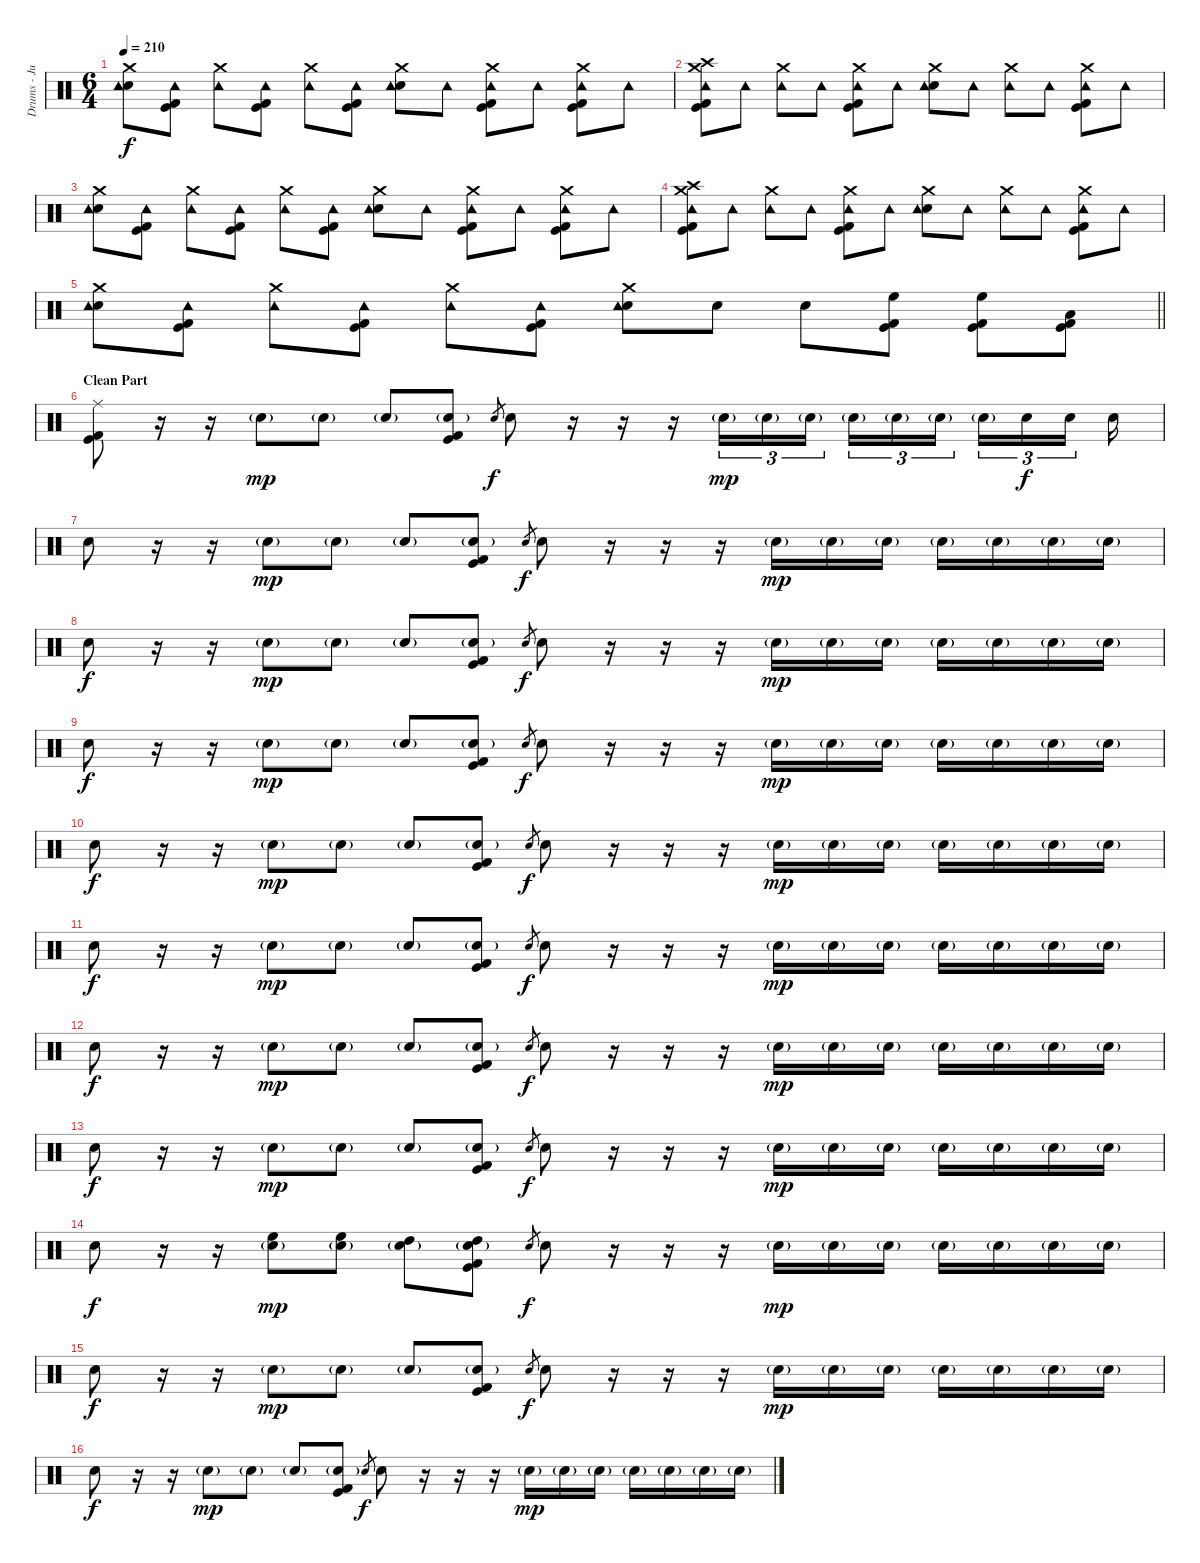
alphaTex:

\track ("Drums - Justin Foley" "Drums - Ju") {instrument percussion}
\staff {score}
\articulation defaults
\ts (6 4)
\tempo 210
\clef neutral
\ks c
("Crash medium (hit)" "Snare (hit) 2" "Tambourine (hit)").8{dy f} ("Kick (hit) 2" "Kick (hit)" "Tambourine (hit)").8 ("Crash medium (hit)" "Tambourine (hit)").8 ("Kick (hit) 2" "Kick (hit)" "Tambourine (hit)").8 ("Crash medium (hit)" "Tambourine (hit)").8 ("Kick (hit) 2" "Kick (hit)" "Tambourine (hit)").8 ("Crash medium (hit)" "Snare (hit) 2" "Tambourine (hit)").8 "Tambourine (hit)".8 ("Crash medium (hit)" "Kick (hit) 2" "Kick (hit)" "Tambourine (hit)").8 "Tambourine (hit)".8 ("Crash medium (hit)" "Kick (hit) 2" "Kick (hit)" "Tambourine (hit)").8 "Tambourine (hit)".8 |
("Crash medium (hit)" "Kick (hit) 2" "Kick (hit)" "Crash high (hit)" "Tambourine (hit)").8 "Tambourine (hit)".8 ("Crash medium (hit)" "Tambourine (hit)").8 "Tambourine (hit)".8 ("Crash medium (hit)" "Kick (hit) 2" "Kick (hit)" "Tambourine (hit)").8 "Tambourine (hit)".8 ("Crash medium (hit)" "Snare (hit) 2" "Tambourine (hit)").8 "Tambourine (hit)".8 ("Crash medium (hit)" "Tambourine (hit)").8 "Tambourine (hit)".8 ("Crash medium (hit)" "Kick (hit) 2" "Kick (hit)" "Tambourine (hit)").8 "Tambourine (hit)".8 |
("Crash medium (hit)" "Snare (hit) 2" "Tambourine (hit)").8 ("Kick (hit) 2" "Kick (hit)" "Tambourine (hit)").8 ("Crash medium (hit)" "Tambourine (hit)").8 ("Kick (hit) 2" "Kick (hit)" "Tambourine (hit)").8 ("Crash medium (hit)" "Tambourine (hit)").8 ("Kick (hit) 2" "Kick (hit)" "Tambourine (hit)").8 ("Crash medium (hit)" "Snare (hit) 2" "Tambourine (hit)").8 "Tambourine (hit)".8 ("Crash medium (hit)" "Kick (hit) 2" "Kick (hit)" "Tambourine (hit)").8 "Tambourine (hit)".8 ("Crash medium (hit)" "Kick (hit) 2" "Kick (hit)" "Tambourine (hit)").8 "Tambourine (hit)".8 |
("Crash medium (hit)" "Kick (hit) 2" "Kick (hit)" "Crash high (hit)" "Tambourine (hit)").8 "Tambourine (hit)".8 ("Crash medium (hit)" "Tambourine (hit)").8 "Tambourine (hit)".8 ("Crash medium (hit)" "Kick (hit) 2" "Kick (hit)" "Tambourine (hit)").8 "Tambourine (hit)".8 ("Crash medium (hit)" "Snare (hit) 2" "Tambourine (hit)").8 "Tambourine (hit)".8 ("Crash medium (hit)" "Tambourine (hit)").8 "Tambourine (hit)".8 ("Crash medium (hit)" "Kick (hit) 2" "Kick (hit)" "Tambourine (hit)").8 "Tambourine (hit)".8 |
\barLineRight lightlight
("Crash medium (hit)" "Snare (hit) 2" "Tambourine (hit)").8 ("Kick (hit) 2" "Kick (hit)" "Tambourine (hit)").8 ("Crash medium (hit)" "Tambourine (hit)").8 ("Kick (hit) 2" "Kick (hit)" "Tambourine (hit)").8 ("Crash medium (hit)" "Tambourine (hit)").8 ("Kick (hit) 2" "Kick (hit)" "Tambourine (hit)").8 ("Crash medium (hit)" "Snare (hit) 2" "Tambourine (hit)").8 "Snare (hit) 2".8 "Snare (hit) 2".8 ("High Floor Tom (hit)" "Kick (hit) 2" "Kick (hit)").8 ("High Floor Tom (hit)" "Kick (hit) 2" "Kick (hit)").8 ("Low Tom (hit)" "Kick (hit) 2" "Kick (hit)").8 |
\section ("" "Clean Part")
("Ride (middle)" "Kick (hit) 2" "Kick (hit)").8 r.16 r.16 "Snare (hit) 2"{g}.8{dy mp} "Snare (hit) 2"{g}.8 "Snare (hit) 2"{g}.8 ("Snare (hit) 2"{g} "Kick (hit) 2" "Kick (hit)").8 "Snare (hit) 2".8{gr dy f} "Snare (hit) 2".8 r.16 r.16 r.16 "Snare (hit) 2"{g}.16{tu (3 2) dy mp} "Snare (hit) 2"{g}.16{tu (3 2)} "Snare (hit) 2"{g}.16{tu (3 2) beam splitsecondary} "Snare (hit) 2"{g}.16{tu (3 2)} "Snare (hit) 2"{g}.16{tu (3 2)} "Snare (hit) 2"{g}.16{tu (3 2) beam splitsecondary} "Snare (hit) 2"{g}.16{tu (3 2)} "Snare (hit) 2".16{tu (3 2) dy f} "Snare (hit) 2".16{tu (3 2) beam splitsecondary} "Snare (hit) 2".16 |
"Snare (hit) 2".8 r.16 r.16 "Snare (hit) 2"{g}.8{dy mp} "Snare (hit) 2"{g}.8 "Snare (hit) 2"{g}.8 ("Snare (hit) 2"{g} "Kick (hit) 2" "Kick (hit)").8 "Snare (hit) 2".8{gr dy f} "Snare (hit) 2".8 r.16 r.16 r.16 "Snare (hit) 2"{g}.16{dy mp} "Snare (hit) 2"{g}.16 "Snare (hit) 2"{g}.16 "Snare (hit) 2"{g}.16 "Snare (hit) 2"{g}.16 "Snare (hit) 2"{g}.16 "Snare (hit) 2"{g}.16 |
"Snare (hit) 2".8{dy f} r.16 r.16 "Snare (hit) 2"{g}.8{dy mp} "Snare (hit) 2"{g}.8 "Snare (hit) 2"{g}.8 ("Snare (hit) 2"{g} "Kick (hit) 2" "Kick (hit)").8 "Snare (hit) 2".8{gr dy f} "Snare (hit) 2".8 r.16 r.16 r.16 "Snare (hit) 2"{g}.16{dy mp} "Snare (hit) 2"{g}.16 "Snare (hit) 2"{g}.16 "Snare (hit) 2"{g}.16 "Snare (hit) 2"{g}.16 "Snare (hit) 2"{g}.16 "Snare (hit) 2"{g}.16 |
"Snare (hit) 2".8{dy f} r.16 r.16 "Snare (hit) 2"{g}.8{dy mp} "Snare (hit) 2"{g}.8 "Snare (hit) 2"{g}.8 ("Snare (hit) 2"{g} "Kick (hit) 2" "Kick (hit)").8 "Snare (hit) 2".8{gr dy f} "Snare (hit) 2".8 r.16 r.16 r.16 "Snare (hit) 2"{g}.16{dy mp} "Snare (hit) 2"{g}.16 "Snare (hit) 2"{g}.16 "Snare (hit) 2"{g}.16 "Snare (hit) 2"{g}.16 "Snare (hit) 2"{g}.16 "Snare (hit) 2"{g}.16 |
"Snare (hit) 2".8{dy f} r.16 r.16 "Snare (hit) 2"{g}.8{dy mp} "Snare (hit) 2"{g}.8 "Snare (hit) 2"{g}.8 ("Snare (hit) 2"{g} "Kick (hit) 2" "Kick (hit)").8 "Snare (hit) 2".8{gr dy f} "Snare (hit) 2".8 r.16 r.16 r.16 "Snare (hit) 2"{g}.16{dy mp} "Snare (hit) 2"{g}.16 "Snare (hit) 2"{g}.16 "Snare (hit) 2"{g}.16 "Snare (hit) 2"{g}.16 "Snare (hit) 2"{g}.16 "Snare (hit) 2"{g}.16 |
"Snare (hit) 2".8{dy f} r.16 r.16 "Snare (hit) 2"{g}.8{dy mp} "Snare (hit) 2"{g}.8 "Snare (hit) 2"{g}.8 ("Snare (hit) 2"{g} "Kick (hit) 2" "Kick (hit)").8 "Snare (hit) 2".8{gr dy f} "Snare (hit) 2".8 r.16 r.16 r.16 "Snare (hit) 2"{g}.16{dy mp} "Snare (hit) 2"{g}.16 "Snare (hit) 2"{g}.16 "Snare (hit) 2"{g}.16 "Snare (hit) 2"{g}.16 "Snare (hit) 2"{g}.16 "Snare (hit) 2"{g}.16 |
"Snare (hit) 2".8{dy f} r.16 r.16 "Snare (hit) 2"{g}.8{dy mp} "Snare (hit) 2"{g}.8 "Snare (hit) 2"{g}.8 ("Snare (hit) 2"{g} "Kick (hit) 2" "Kick (hit)").8 "Snare (hit) 2".8{gr dy f} "Snare (hit) 2".8 r.16 r.16 r.16 "Snare (hit) 2"{g}.16{dy mp} "Snare (hit) 2"{g}.16 "Snare (hit) 2"{g}.16 "Snare (hit) 2"{g}.16 "Snare (hit) 2"{g}.16 "Snare (hit) 2"{g}.16 "Snare (hit) 2"{g}.16 |
"Snare (hit) 2".8{dy f} r.16 r.16 "Snare (hit) 2"{g}.8{dy mp} "Snare (hit) 2"{g}.8 "Snare (hit) 2"{g}.8 ("Snare (hit) 2"{g} "Kick (hit) 2" "Kick (hit)").8 "Snare (hit) 2".8{gr dy f} "Snare (hit) 2".8 r.16 r.16 r.16 "Snare (hit) 2"{g}.16{dy mp} "Snare (hit) 2"{g}.16 "Snare (hit) 2"{g}.16 "Snare (hit) 2"{g}.16 "Snare (hit) 2"{g}.16 "Snare (hit) 2"{g}.16 "Snare (hit) 2"{g}.16 |
"Snare (hit) 2".8{dy f} r.16 r.16 ("High Floor Tom (hit)" "Snare (hit) 2"{g}).8{dy mp} ("High Floor Tom (hit)" "Snare (hit) 2"{g}).8 ("High Tom (hit)" "Snare (hit) 2"{g}).8 ("High Tom (hit)" "Snare (hit) 2"{g} "Kick (hit) 2" "Kick (hit)").8 "Snare (hit) 2".8{gr dy f} "Snare (hit) 2".8 r.16 r.16 r.16 "Snare (hit) 2"{g}.16{dy mp} "Snare (hit) 2"{g}.16 "Snare (hit) 2"{g}.16 "Snare (hit) 2"{g}.16 "Snare (hit) 2"{g}.16 "Snare (hit) 2"{g}.16 "Snare (hit) 2"{g}.16 |
"Snare (hit) 2".8{dy f} r.16 r.16 "Snare (hit) 2"{g}.8{dy mp} "Snare (hit) 2"{g}.8 "Snare (hit) 2"{g}.8 ("Snare (hit) 2"{g} "Kick (hit) 2" "Kick (hit)").8 "Snare (hit) 2".8{gr dy f} "Snare (hit) 2".8 r.16 r.16 r.16 "Snare (hit) 2"{g}.16{dy mp} "Snare (hit) 2"{g}.16 "Snare (hit) 2"{g}.16 "Snare (hit) 2"{g}.16 "Snare (hit) 2"{g}.16 "Snare (hit) 2"{g}.16 "Snare (hit) 2"{g}.16 |
"Snare (hit) 2".8{dy f} r.16 r.16 "Snare (hit) 2"{g}.8{dy mp} "Snare (hit) 2"{g}.8 "Snare (hit) 2"{g}.8 ("Snare (hit) 2"{g} "Kick (hit) 2" "Kick (hit)").8 "Snare (hit) 2".8{gr dy f} "Snare (hit) 2".8 r.16 r.16 r.16 "Snare (hit) 2"{g}.16{dy mp} "Snare (hit) 2"{g}.16 "Snare (hit) 2"{g}.16 "Snare (hit) 2"{g}.16 "Snare (hit) 2"{g}.16 "Snare (hit) 2"{g}.16 "Snare (hit) 2"{g}.16
